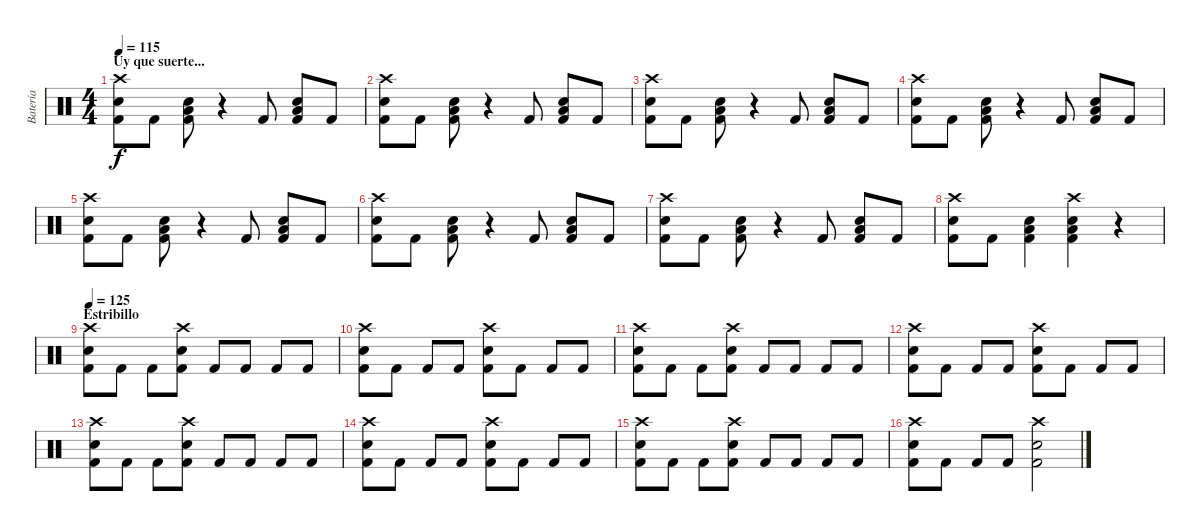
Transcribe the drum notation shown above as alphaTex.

\track ("Batería" "Batería") {instrument percussion}
\staff {score}
\articulation defaults
\ts (4 4)
\section ("" "Uy que suerte...")
\tempo 115
\clef neutral
\ks c
("Crash high (hit)" "Electric Snare (hit)" "Kick (hit) 2").8{dy f} "Kick (hit) 2".8 ("Electric Snare (hit)" "Low Tom (hit)" "Kick (hit) 2").8 r.4 "Kick (hit) 2".8 ("Electric Snare (hit)" "Low Tom (hit)" "Kick (hit) 2").8 "Kick (hit) 2".8 |
("Crash high (hit)" "Electric Snare (hit)" "Kick (hit) 2").8 "Kick (hit) 2".8 ("Electric Snare (hit)" "Low Tom (hit)" "Kick (hit) 2").8 r.4 "Kick (hit) 2".8 ("Electric Snare (hit)" "Low Tom (hit)" "Kick (hit) 2").8 "Kick (hit) 2".8 |
("Crash high (hit)" "Electric Snare (hit)" "Kick (hit) 2").8 "Kick (hit) 2".8 ("Electric Snare (hit)" "Low Tom (hit)" "Kick (hit) 2").8 r.4 "Kick (hit) 2".8 ("Electric Snare (hit)" "Low Tom (hit)" "Kick (hit) 2").8 "Kick (hit) 2".8 |
("Crash high (hit)" "Electric Snare (hit)" "Kick (hit) 2").8 "Kick (hit) 2".8 ("Electric Snare (hit)" "Low Tom (hit)" "Kick (hit) 2").8 r.4 "Kick (hit) 2".8 ("Electric Snare (hit)" "Low Tom (hit)" "Kick (hit) 2").8 "Kick (hit) 2".8 |
("Crash high (hit)" "Electric Snare (hit)" "Kick (hit) 2").8 "Kick (hit) 2".8 ("Electric Snare (hit)" "Low Tom (hit)" "Kick (hit) 2").8 r.4 "Kick (hit) 2".8 ("Electric Snare (hit)" "Low Tom (hit)" "Kick (hit) 2").8 "Kick (hit) 2".8 |
("Crash high (hit)" "Electric Snare (hit)" "Kick (hit) 2").8 "Kick (hit) 2".8 ("Electric Snare (hit)" "Low Tom (hit)" "Kick (hit) 2").8 r.4 "Kick (hit) 2".8 ("Electric Snare (hit)" "Low Tom (hit)" "Kick (hit) 2").8 "Kick (hit) 2".8 |
("Crash high (hit)" "Electric Snare (hit)" "Kick (hit) 2").8 "Kick (hit) 2".8 ("Electric Snare (hit)" "Low Tom (hit)" "Kick (hit) 2").8 r.4 "Kick (hit) 2".8 ("Electric Snare (hit)" "Low Tom (hit)" "Kick (hit) 2").8 "Kick (hit) 2".8 |
("Crash high (hit)" "Electric Snare (hit)" "Kick (hit) 2").8 "Kick (hit) 2".8 ("Electric Snare (hit)" "Low Tom (hit)" "Kick (hit) 2").4 ("Crash high (hit)" "Electric Snare (hit)" "Low Tom (hit)" "Kick (hit) 2").4 r.4 |
\section ("" "Estribillo")
\tempo 125
("Crash high (hit)" "Snare (hit) 2" "Kick (hit) 2").8 "Kick (hit) 2".8 "Kick (hit) 2".8 ("Crash high (hit)" "Snare (hit) 2" "Kick (hit) 2").8 "Kick (hit) 2".8 "Kick (hit) 2".8 "Kick (hit) 2".8 "Kick (hit) 2".8 |
("Crash high (hit)" "Snare (hit) 2" "Kick (hit) 2").8 "Kick (hit) 2".8 "Kick (hit) 2".8 "Kick (hit) 2".8 ("Crash high (hit)" "Snare (hit) 2" "Kick (hit) 2").8 "Kick (hit) 2".8 "Kick (hit) 2".8 "Kick (hit) 2".8 |
("Crash high (hit)" "Snare (hit) 2" "Kick (hit) 2").8 "Kick (hit) 2".8 "Kick (hit) 2".8 ("Crash high (hit)" "Snare (hit) 2" "Kick (hit) 2").8 "Kick (hit) 2".8 "Kick (hit) 2".8 "Kick (hit) 2".8 "Kick (hit) 2".8 |
("Crash high (hit)" "Snare (hit) 2" "Kick (hit) 2").8 "Kick (hit) 2".8 "Kick (hit) 2".8 "Kick (hit) 2".8 ("Crash high (hit)" "Snare (hit) 2" "Kick (hit) 2").8 "Kick (hit) 2".8 "Kick (hit) 2".8 "Kick (hit) 2".8 |
("Crash high (hit)" "Snare (hit) 2" "Kick (hit) 2").8 "Kick (hit) 2".8 "Kick (hit) 2".8 ("Crash high (hit)" "Snare (hit) 2" "Kick (hit) 2").8 "Kick (hit) 2".8 "Kick (hit) 2".8 "Kick (hit) 2".8 "Kick (hit) 2".8 |
("Crash high (hit)" "Snare (hit) 2" "Kick (hit) 2").8 "Kick (hit) 2".8 "Kick (hit) 2".8 "Kick (hit) 2".8 ("Crash high (hit)" "Snare (hit) 2" "Kick (hit) 2").8 "Kick (hit) 2".8 "Kick (hit) 2".8 "Kick (hit) 2".8 |
("Crash high (hit)" "Snare (hit) 2" "Kick (hit) 2").8 "Kick (hit) 2".8 "Kick (hit) 2".8 ("Crash high (hit)" "Snare (hit) 2" "Kick (hit) 2").8 "Kick (hit) 2".8 "Kick (hit) 2".8 "Kick (hit) 2".8 "Kick (hit) 2".8 |
("Crash high (hit)" "Snare (hit) 2" "Kick (hit) 2").8 "Kick (hit) 2".8 "Kick (hit) 2".8 "Kick (hit) 2".8 ("Crash high (hit)" "Snare (hit) 2" "Kick (hit) 2").2
